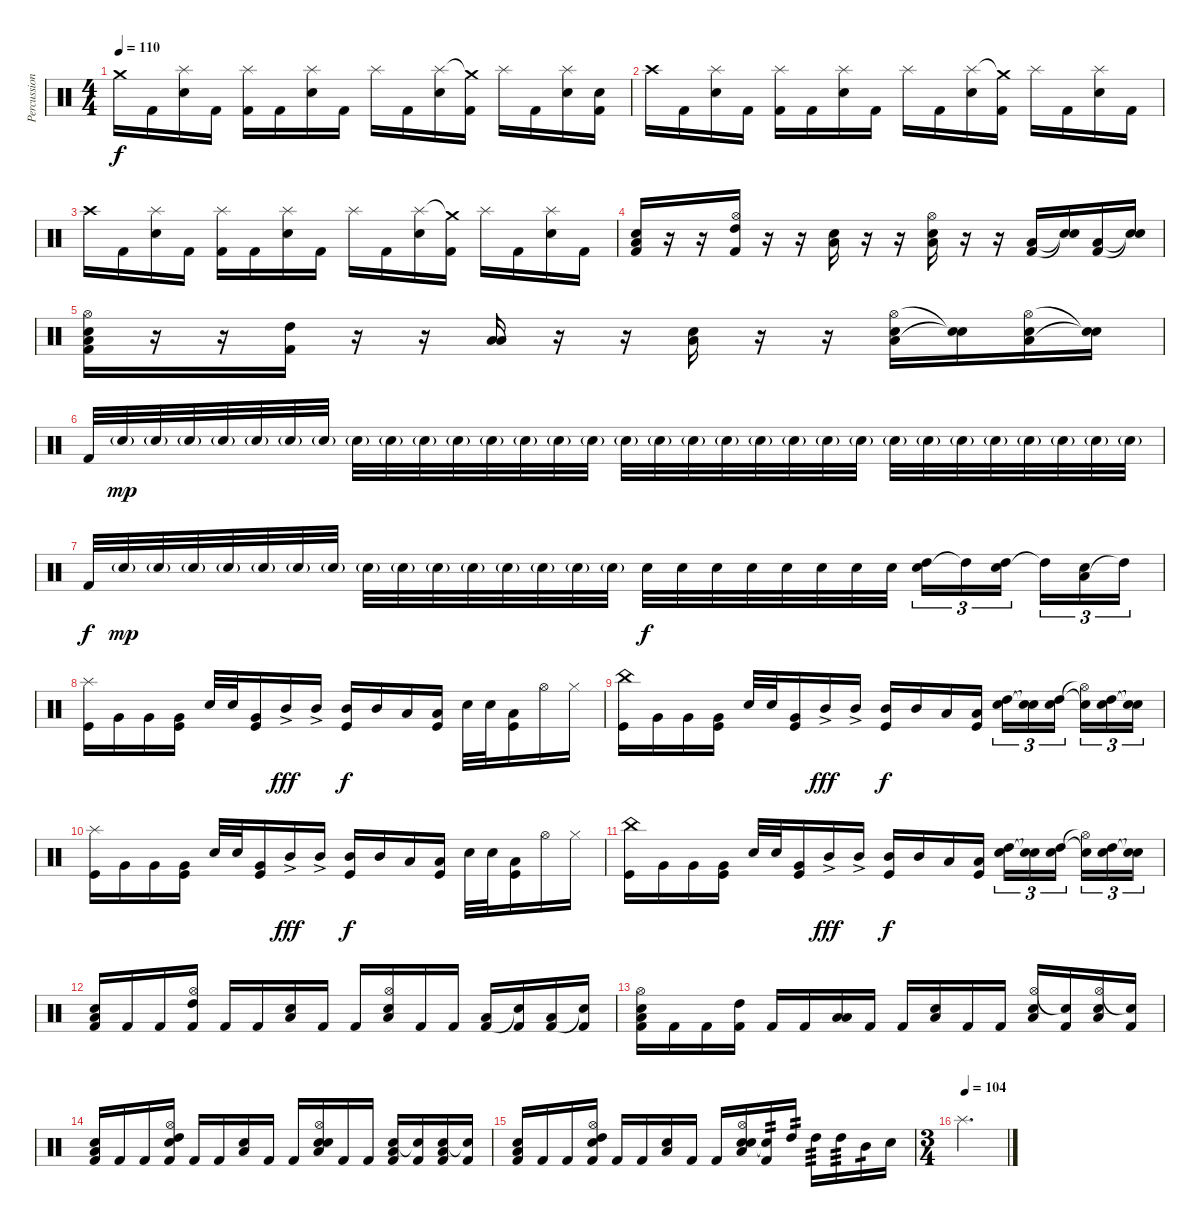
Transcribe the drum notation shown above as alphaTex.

\track ("Percussion" "Percussion") {instrument percussion}
\staff {score}
\articulation defaults
\ts (4 4)
\tempo 110
\clef neutral
\ks c "Crash medium (hit)".16{dy f} "Kick (hit) 2".16
("Splash (hit)" "Electric Snare (hit)").16 "Kick (hit) 2".16 ("Splash (hit)" "Kick (hit) 2").16 "Kick (hit) 2".16 ("Splash (hit)" "Electric Snare (hit)").16 "Kick (hit) 2".16 "Splash (hit)".16 "Kick (hit) 2".16 ("Splash (hit)" "Electric Snare (hit)").16 ("Crash medium (hit)"{t} "Kick (hit) 2").16 "Splash (hit)".16 "Kick (hit) 2".16 ("Electric Snare (hit)" "Splash (hit)").16 ("Electric Snare (hit)" "Kick (hit) 2").16 |
"Crash high (hit)".16 "Kick (hit) 2".16 ("Splash (hit)" "Electric Snare (hit)").16 "Kick (hit) 2".16 ("Splash (hit)" "Kick (hit) 2").16 "Kick (hit) 2".16 ("Splash (hit)" "Electric Snare (hit)").16 "Kick (hit) 2".16 "Splash (hit)".16 "Kick (hit) 2".16 ("Splash (hit)" "Electric Snare (hit)").16 ("Crash medium (hit)"{t} "Kick (hit) 2").16 "Splash (hit)".16 "Kick (hit) 2".16 ("Electric Snare (hit)" "Splash (hit)").16 "Kick (hit) 2".16 |
"Crash high (hit)".16 "Kick (hit) 2".16 ("Splash (hit)" "Electric Snare (hit)").16 "Kick (hit) 2".16 ("Splash (hit)" "Kick (hit) 2").16 "Kick (hit) 2".16 ("Splash (hit)" "Electric Snare (hit)").16 "Kick (hit) 2".16 "Splash (hit)".16 "Kick (hit) 2".16 ("Splash (hit)" "Electric Snare (hit)").16 ("Crash medium (hit)"{t} "Kick (hit) 2").16 "Splash (hit)".16 "Kick (hit) 2".16 ("Electric Snare (hit)" "Splash (hit)").16 "Kick (hit) 2".16 |
("Kick (hit) 2" "Low Tom (hit)" "Electric Snare (hit)").16 r.16 r.16 ("Hi-Hat (open)" "High Tom (hit)" "Kick (hit) 2").16 r.16 r.16 ("Low Tom (hit)" "Electric Snare (hit)").16 r.16 r.16 ("Hi-Hat (open)" "Low Floor Tom (hit)" "Electric Snare (hit)").16 r.16 r.16 ("Kick (hit) 2" "Low Floor Tom (hit)").16 ("Snare (hit)"{t} "Snare (hit)"{t}).16 ("Kick (hit) 2" "Low Floor Tom (hit)").16 ("Snare (hit)"{t} "Snare (hit)"{t}).16 |
("Hi-Hat (open)" "Kick (hit) 2" "Low Tom (hit)" "Electric Snare (hit)").16 r.16 r.16 ("High Tom (hit)" "Kick (hit) 2").16 r.16 r.16 ("Low Tom (hit)" "Low Floor Tom (hit)").16 r.16 r.16 ("Low Floor Tom (hit)" "Electric Snare (hit)").16 r.16 r.16 ("Hi-Hat (open)" "Low Floor Tom (hit)" "Electric Snare (hit)").16 ("Snare (hit)"{t} "Snare (hit)"{t}).16 ("Hi-Hat (open)" "Low Floor Tom (hit)" "Electric Snare (hit)").16 ("Snare (hit)"{t} "Snare (hit)"{t}).16 |
"Kick (hit) 2".32 "Electric Snare (hit)"{g}.32{dy mp} "Electric Snare (hit)"{g}.32 "Electric Snare (hit)"{g}.32 "Electric Snare (hit)"{g}.32 "Electric Snare (hit)"{g}.32 "Electric Snare (hit)"{g}.32 "Electric Snare (hit)"{g}.32 "Electric Snare (hit)"{g}.32 "Electric Snare (hit)"{g}.32 "Electric Snare (hit)"{g}.32 "Electric Snare (hit)"{g}.32 "Electric Snare (hit)"{g}.32 "Electric Snare (hit)"{g}.32 "Electric Snare (hit)"{g}.32 "Electric Snare (hit)"{g}.32 "Electric Snare (hit)"{g}.32 "Electric Snare (hit)"{g}.32 "Electric Snare (hit)"{g}.32 "Electric Snare (hit)"{g}.32 "Electric Snare (hit)"{g}.32 "Electric Snare (hit)"{g}.32 "Electric Snare (hit)"{g}.32 "Electric Snare (hit)"{g}.32 "Electric Snare (hit)"{g}.32 "Electric Snare (hit)"{g}.32 "Electric Snare (hit)"{g}.32 "Electric Snare (hit)"{g}.32 "Electric Snare (hit)"{g}.32 "Electric Snare (hit)"{g}.32 "Electric Snare (hit)"{g}.32 "Electric Snare (hit)"{g}.32 |
"Kick (hit) 2".32{dy f} "Electric Snare (hit)"{g}.32{dy mp} "Electric Snare (hit)"{g}.32 "Electric Snare (hit)"{g}.32 "Electric Snare (hit)"{g}.32 "Electric Snare (hit)"{g}.32 "Electric Snare (hit)"{g}.32 "Electric Snare (hit)"{g}.32 "Electric Snare (hit)"{g}.32 "Electric Snare (hit)"{g}.32 "Electric Snare (hit)"{g}.32 "Electric Snare (hit)"{g}.32 "Electric Snare (hit)"{g}.32 "Electric Snare (hit)"{g}.32 "Electric Snare (hit)"{g}.32 "Electric Snare (hit)"{g}.32 "Electric Snare (hit)".32{dy f} "Electric Snare (hit)".32 "Electric Snare (hit)".32 "Electric Snare (hit)".32 "Electric Snare (hit)".32 "Electric Snare (hit)".32 "Electric Snare (hit)".32 "Electric Snare (hit)".32 ("Electric Snare (hit)" "High Tom (hit)").16{tu (3 2)} "High Tom (hit)"{t}.16{tu (3 2)} ("Electric Snare (hit)" "High Tom (hit)").16{tu (3 2) beam splitsecondary} "High Tom (hit)"{t}.16{tu (3 2)} ("Low Floor Tom (hit)" "Electric Snare (hit)").16{tu (3 2)} "High Tom (hit)"{t}.16{tu (3 2)} |
("Splash (hit)" "Kick (hit)").16 "Very Low Tom (hit)".16 "Very Low Tom (hit)".16 ("Very Low Tom (hit)" "Kick (hit)").16 "Electric Snare (hit)".32 "Electric Snare (hit)".32 ("Very Low Tom (hit)" "Kick (hit)").16 "Mid Tom (hit)"{ac}.16{dy fff} "Mid Tom (hit)"{ac}.16 ("Mid Tom (hit)" "Kick (hit)").16{dy f} "Mid Tom (hit)".16 "Low Floor Tom (hit)".16 ("Low Floor Tom (hit)" "Kick (hit)").16 "Electric Snare (hit)".32 "Electric Snare (hit)".32 ("Low Floor Tom (hit)" "Kick (hit)").16 "Hi-Hat (open)".16 "Hi-Hat (closed)".16 |
("China (hit)" "Kick (hit)").16 "Very Low Tom (hit)".16 "Very Low Tom (hit)".16 ("Very Low Tom (hit)" "Kick (hit)").16 "Electric Snare (hit)".32 "Electric Snare (hit)".32 ("Very Low Tom (hit)" "Kick (hit)").16 "Mid Tom (hit)"{ac}.16{dy fff} "Mid Tom (hit)"{ac}.16 ("Mid Tom (hit)" "Kick (hit)").16{dy f} "Mid Tom (hit)".16 "Low Floor Tom (hit)".16 ("Low Floor Tom (hit)" "Kick (hit)").16 ("Electric Snare (hit)" "High Tom (hit)").16{tu (3 2)} ("Electric Snare (hit)"{t} "Snare (hit)"{t}).16{tu (3 2)} ("Electric Snare (hit)" "High Tom (hit)").16{tu (3 2) beam splitsecondary} ("Hi-Hat (open)"{t} "Snare (hit)"{t}).16{tu (3 2)} ("Electric Snare (hit)" "High Tom (hit)").16{tu (3 2)} ("Snare (hit)"{t} "Snare (hit)"{t}).16{tu (3 2)} |
("Splash (hit)" "Kick (hit)").16 "Very Low Tom (hit)".16 "Very Low Tom (hit)".16 ("Very Low Tom (hit)" "Kick (hit)").16 "Electric Snare (hit)".32 "Electric Snare (hit)".32 ("Very Low Tom (hit)" "Kick (hit)").16 "Mid Tom (hit)"{ac}.16{dy fff} "Mid Tom (hit)"{ac}.16 ("Mid Tom (hit)" "Kick (hit)").16{dy f} "Mid Tom (hit)".16 "Low Floor Tom (hit)".16 ("Low Floor Tom (hit)" "Kick (hit)").16 "Electric Snare (hit)".32 "Electric Snare (hit)".32 ("Low Floor Tom (hit)" "Kick (hit)").16 "Hi-Hat (open)".16 "Hi-Hat (closed)".16 |
("China (hit)" "Kick (hit)").16 "Very Low Tom (hit)".16 "Very Low Tom (hit)".16 ("Very Low Tom (hit)" "Kick (hit)").16 "Electric Snare (hit)".32 "Electric Snare (hit)".32 ("Very Low Tom (hit)" "Kick (hit)").16 "Mid Tom (hit)"{ac}.16{dy fff} "Mid Tom (hit)"{ac}.16 ("Mid Tom (hit)" "Kick (hit)").16{dy f} "Mid Tom (hit)".16 "Low Floor Tom (hit)".16 ("Low Floor Tom (hit)" "Kick (hit)").16 ("Electric Snare (hit)" "High Tom (hit)").16{tu (3 2)} ("Electric Snare (hit)"{t} "Snare (hit)"{t}).16{tu (3 2)} ("Electric Snare (hit)" "High Tom (hit)").16{tu (3 2) beam splitsecondary} ("Hi-Hat (open)"{t} "Snare (hit)"{t}).16{tu (3 2)} ("Electric Snare (hit)" "High Tom (hit)").16{tu (3 2)} ("Snare (hit)"{t} "Snare (hit)"{t}).16{tu (3 2)} |
("Kick (hit) 2" "Low Tom (hit)" "Electric Snare (hit)").16 "Kick (hit) 2".16 "Kick (hit) 2".16 ("Hi-Hat (open)" "High Tom (hit)" "Kick (hit) 2").16 "Kick (hit) 2".16 "Kick (hit) 2".16 ("Low Tom (hit)" "Electric Snare (hit)").16 "Kick (hit) 2".16 "Kick (hit) 2".16 ("Hi-Hat (open)" "Low Floor Tom (hit)" "Electric Snare (hit)").16 "Kick (hit) 2".16 "Kick (hit) 2".16 ("Kick (hit) 2" "Low Floor Tom (hit)").16 ("Snare (hit)"{t} "Kick (hit) 2").16 ("Kick (hit) 2" "Low Floor Tom (hit)").16 ("Snare (hit)"{t} "Kick (hit) 2").16 |
("Hi-Hat (open)" "Kick (hit) 2" "Low Tom (hit)" "Electric Snare (hit)").16 "Kick (hit) 2".16 "Kick (hit) 2".16 ("High Tom (hit)" "Kick (hit) 2").16 "Kick (hit) 2".16 "Kick (hit) 2".16 ("Low Tom (hit)" "Low Floor Tom (hit)").16 "Kick (hit) 2".16 "Kick (hit) 2".16 ("Low Floor Tom (hit)" "Electric Snare (hit)").16 "Kick (hit) 2".16 "Kick (hit) 2".16 ("Hi-Hat (open)" "Low Floor Tom (hit)" "Electric Snare (hit)").16 ("Snare (hit)"{t} "Kick (hit) 2").16 ("Hi-Hat (open)" "Low Floor Tom (hit)" "Electric Snare (hit)").16 ("Snare (hit)"{t} "Kick (hit) 2").16 |
("Kick (hit) 2" "Low Tom (hit)" "Electric Snare (hit)").16 "Kick (hit) 2".16 "Kick (hit) 2".16 ("Electric Snare (hit)" "Hi-Hat (open)" "High Tom (hit)" "Kick (hit) 2").16 "Kick (hit) 2".16 "Kick (hit) 2".16 ("Low Tom (hit)" "Electric Snare (hit)").16 "Kick (hit) 2".16 "Kick (hit) 2".16 ("Electric Snare (hit)" "Hi-Hat (open)" "Low Floor Tom (hit)" "Electric Snare (hit)").16 "Kick (hit) 2".16 "Kick (hit) 2".16 ("Electric Snare (hit)" "Kick (hit) 2" "Low Floor Tom (hit)").16 ("Snare (hit)"{t} "Kick (hit) 2").16 ("Electric Snare (hit)" "Kick (hit) 2" "Low Floor Tom (hit)").16 ("Snare (hit)"{t} "Kick (hit) 2").16 |
("Kick (hit) 2" "Low Tom (hit)" "Electric Snare (hit)").16 "Kick (hit) 2".16 "Kick (hit) 2".16 ("Electric Snare (hit)" "Hi-Hat (open)" "High Tom (hit)" "Kick (hit) 2").16 "Kick (hit) 2".16 "Kick (hit) 2".16 ("Low Tom (hit)" "Electric Snare (hit)").16 "Kick (hit) 2".16 "Kick (hit) 2".16 ("Electric Snare (hit)" "Hi-Hat (open)" "Low Floor Tom (hit)" "Electric Snare (hit)").16 ("Snare (hit)"{t} "Kick (hit) 2").16{tp 2} "High Tom (hit)".16{tp 2} "High Tom (hit)".16{tp 3} "High Tom (hit)".16{tp 3} "Mid Tom (hit)".16{tp 1} "Electric Snare (hit)".16 |
\ts (3 4)
\tempo (104 0.08333333333333333)
"Splash (hit)".2{d}
